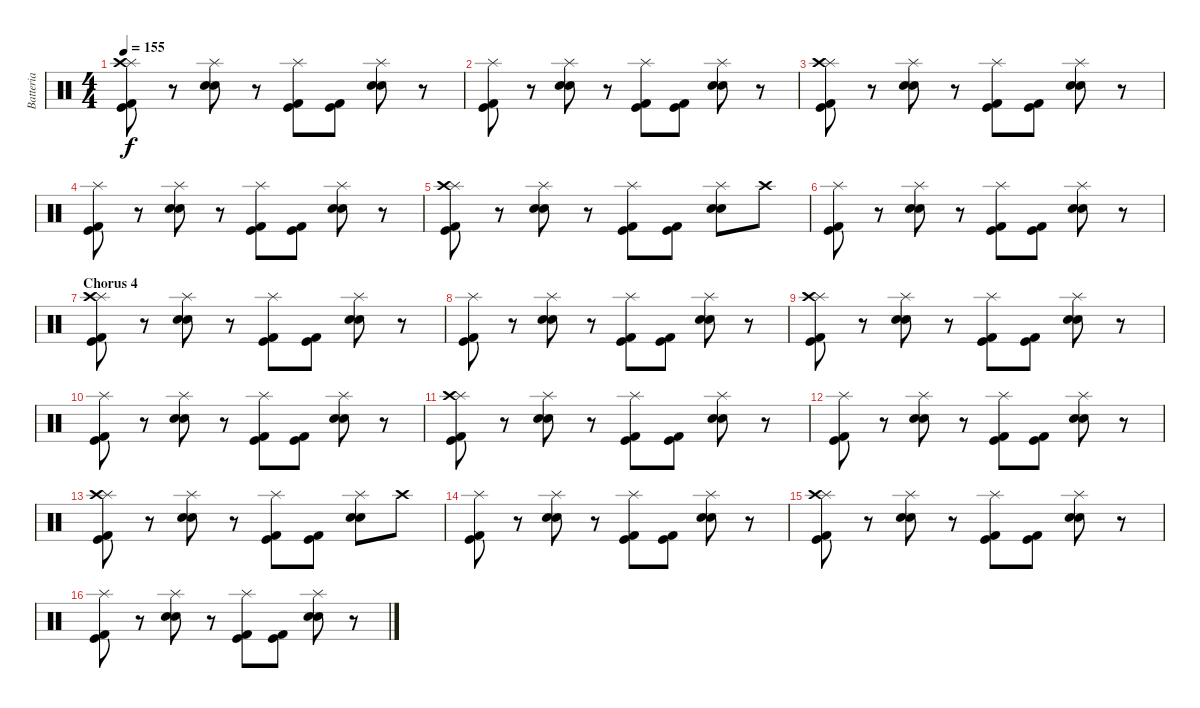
\track ("Batteria" "Batteria") {instrument percussion}
\staff {score}
\articulation defaults
\ts (4 4)
\tempo 155
\clef neutral
\ks c
("Kick (hit)" "Kick (hit) 2" "Splash (hit)" "Crash high (hit)").8{dy f} r.8 ("Electric Snare (hit)" "Snare (hit) 2" "Splash (hit)").8 r.8 ("Kick (hit)" "Kick (hit) 2" "Splash (hit)").8 ("Kick (hit)" "Kick (hit) 2").8 ("Electric Snare (hit)" "Snare (hit) 2" "Splash (hit)").8 r.8 |
("Kick (hit)" "Kick (hit) 2" "Splash (hit)").8 r.8 ("Electric Snare (hit)" "Snare (hit) 2" "Splash (hit)").8 r.8 ("Kick (hit)" "Kick (hit) 2" "Splash (hit)").8 ("Kick (hit)" "Kick (hit) 2").8 ("Electric Snare (hit)" "Snare (hit) 2" "Splash (hit)").8 r.8 |
("Kick (hit)" "Kick (hit) 2" "Splash (hit)" "Crash high (hit)").8 r.8 ("Electric Snare (hit)" "Snare (hit) 2" "Splash (hit)").8 r.8 ("Kick (hit)" "Kick (hit) 2" "Splash (hit)").8 ("Kick (hit)" "Kick (hit) 2").8 ("Electric Snare (hit)" "Snare (hit) 2" "Splash (hit)").8 r.8 |
("Kick (hit)" "Kick (hit) 2" "Splash (hit)").8 r.8 ("Electric Snare (hit)" "Snare (hit) 2" "Splash (hit)").8 r.8 ("Kick (hit)" "Kick (hit) 2" "Splash (hit)").8 ("Kick (hit)" "Kick (hit) 2").8 ("Electric Snare (hit)" "Snare (hit) 2" "Splash (hit)").8 r.8 |
("Kick (hit)" "Kick (hit) 2" "Splash (hit)" "Crash high (hit)").8 r.8 ("Electric Snare (hit)" "Snare (hit) 2" "Splash (hit)").8 r.8 ("Kick (hit)" "Kick (hit) 2" "Splash (hit)").8 ("Kick (hit)" "Kick (hit) 2").8 ("Electric Snare (hit)" "Snare (hit) 2" "Splash (hit)").8 "Crash high (hit)".8 |
("Kick (hit)" "Kick (hit) 2" "Splash (hit)").8 r.8 ("Electric Snare (hit)" "Snare (hit) 2" "Splash (hit)").8 r.8 ("Kick (hit)" "Kick (hit) 2" "Splash (hit)").8 ("Kick (hit)" "Kick (hit) 2").8 ("Electric Snare (hit)" "Snare (hit) 2" "Splash (hit)").8 r.8 |
\section ("" "Chorus 4")
("Kick (hit)" "Kick (hit) 2" "Splash (hit)" "Crash high (hit)").8 r.8 ("Electric Snare (hit)" "Snare (hit) 2" "Splash (hit)").8 r.8 ("Kick (hit)" "Kick (hit) 2" "Splash (hit)").8 ("Kick (hit)" "Kick (hit) 2").8 ("Electric Snare (hit)" "Snare (hit) 2" "Splash (hit)").8 r.8 |
("Kick (hit)" "Kick (hit) 2" "Splash (hit)").8 r.8 ("Electric Snare (hit)" "Snare (hit) 2" "Splash (hit)").8 r.8 ("Kick (hit)" "Kick (hit) 2" "Splash (hit)").8 ("Kick (hit)" "Kick (hit) 2").8 ("Electric Snare (hit)" "Snare (hit) 2" "Splash (hit)").8 r.8 |
("Kick (hit)" "Kick (hit) 2" "Splash (hit)" "Crash high (hit)").8 r.8 ("Electric Snare (hit)" "Snare (hit) 2" "Splash (hit)").8 r.8 ("Kick (hit)" "Kick (hit) 2" "Splash (hit)").8 ("Kick (hit)" "Kick (hit) 2").8 ("Electric Snare (hit)" "Snare (hit) 2" "Splash (hit)").8 r.8 |
("Kick (hit)" "Kick (hit) 2" "Splash (hit)").8 r.8 ("Electric Snare (hit)" "Snare (hit) 2" "Splash (hit)").8 r.8 ("Kick (hit)" "Kick (hit) 2" "Splash (hit)").8 ("Kick (hit)" "Kick (hit) 2").8 ("Electric Snare (hit)" "Snare (hit) 2" "Splash (hit)").8 r.8 |
("Kick (hit)" "Kick (hit) 2" "Splash (hit)" "Crash high (hit)").8 r.8 ("Electric Snare (hit)" "Snare (hit) 2" "Splash (hit)").8 r.8 ("Kick (hit)" "Kick (hit) 2" "Splash (hit)").8 ("Kick (hit)" "Kick (hit) 2").8 ("Electric Snare (hit)" "Snare (hit) 2" "Splash (hit)").8 r.8 |
("Kick (hit)" "Kick (hit) 2" "Splash (hit)").8 r.8 ("Electric Snare (hit)" "Snare (hit) 2" "Splash (hit)").8 r.8 ("Kick (hit)" "Kick (hit) 2" "Splash (hit)").8 ("Kick (hit)" "Kick (hit) 2").8 ("Electric Snare (hit)" "Snare (hit) 2" "Splash (hit)").8 r.8 |
("Kick (hit)" "Kick (hit) 2" "Splash (hit)" "Crash high (hit)").8 r.8 ("Electric Snare (hit)" "Snare (hit) 2" "Splash (hit)").8 r.8 ("Kick (hit)" "Kick (hit) 2" "Splash (hit)").8 ("Kick (hit)" "Kick (hit) 2").8 ("Electric Snare (hit)" "Snare (hit) 2" "Splash (hit)").8 "Crash high (hit)".8 |
("Kick (hit)" "Kick (hit) 2" "Splash (hit)").8 r.8 ("Electric Snare (hit)" "Snare (hit) 2" "Splash (hit)").8 r.8 ("Kick (hit)" "Kick (hit) 2" "Splash (hit)").8 ("Kick (hit)" "Kick (hit) 2").8 ("Electric Snare (hit)" "Snare (hit) 2" "Splash (hit)").8 r.8 |
("Kick (hit)" "Kick (hit) 2" "Splash (hit)" "Crash high (hit)").8 r.8 ("Electric Snare (hit)" "Snare (hit) 2" "Splash (hit)").8 r.8 ("Kick (hit)" "Kick (hit) 2" "Splash (hit)").8 ("Kick (hit)" "Kick (hit) 2").8 ("Electric Snare (hit)" "Snare (hit) 2" "Splash (hit)").8 r.8 |
("Kick (hit)" "Kick (hit) 2" "Splash (hit)").8 r.8 ("Electric Snare (hit)" "Snare (hit) 2" "Splash (hit)").8 r.8 ("Kick (hit)" "Kick (hit) 2" "Splash (hit)").8 ("Kick (hit)" "Kick (hit) 2").8 ("Electric Snare (hit)" "Snare (hit) 2" "Splash (hit)").8 r.8
